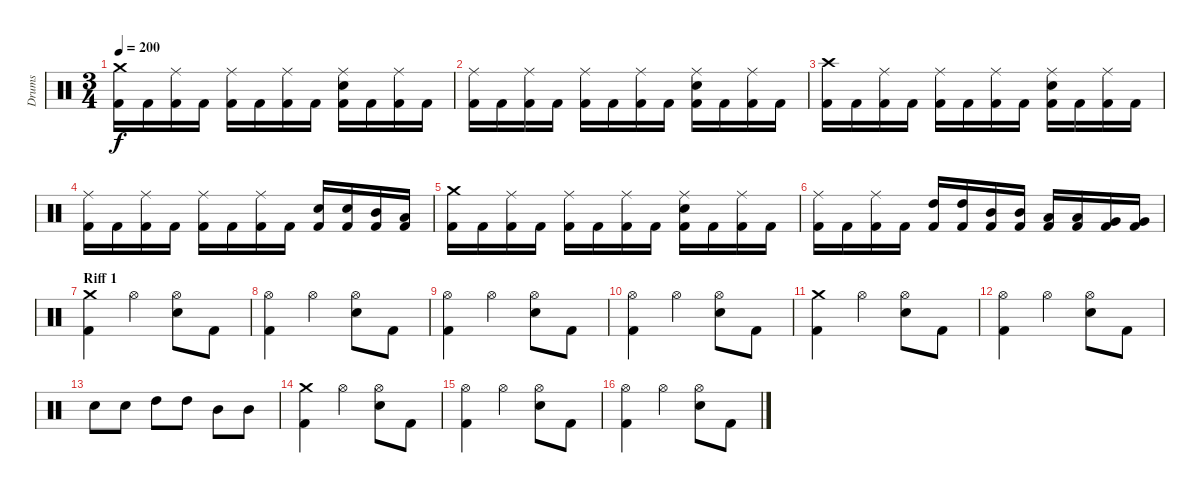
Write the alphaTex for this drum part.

\track ("Drums" "Drums") {instrument percussion}
\staff {score}
\articulation defaults
\ts (3 4)
\tempo 200
\clef neutral
\ks c
("Crash medium (hit)" "Kick (hit) 2").16{dy f} "Kick (hit) 2".16 ("Ride (middle)" "Kick (hit) 2").16 "Kick (hit) 2".16 ("Ride (middle)" "Kick (hit) 2").16 "Kick (hit) 2".16 ("Ride (middle)" "Kick (hit) 2").16 "Kick (hit) 2".16 ("Ride (middle)" "Electric Snare (hit)" "Kick (hit) 2").16 "Kick (hit) 2".16 ("Ride (middle)" "Kick (hit) 2").16 "Kick (hit) 2".16 |
("Ride (middle)" "Kick (hit) 2").16 "Kick (hit) 2".16 ("Ride (middle)" "Kick (hit) 2").16 "Kick (hit) 2".16 ("Ride (middle)" "Kick (hit) 2").16 "Kick (hit) 2".16 ("Ride (middle)" "Kick (hit) 2").16 "Kick (hit) 2".16 ("Ride (middle)" "Electric Snare (hit)" "Kick (hit) 2").16 "Kick (hit) 2".16 ("Ride (middle)" "Kick (hit) 2").16 "Kick (hit) 2".16 |
("Crash high (hit)" "Kick (hit) 2").16 "Kick (hit) 2".16 ("Ride (middle)" "Kick (hit) 2").16 "Kick (hit) 2".16 ("Ride (middle)" "Kick (hit) 2").16 "Kick (hit) 2".16 ("Ride (middle)" "Kick (hit) 2").16 "Kick (hit) 2".16 ("Ride (middle)" "Electric Snare (hit)" "Kick (hit) 2").16 "Kick (hit) 2".16 ("Ride (middle)" "Kick (hit) 2").16 "Kick (hit) 2".16 |
("Ride (middle)" "Kick (hit) 2").16 "Kick (hit) 2".16 ("Ride (middle)" "Kick (hit) 2").16 "Kick (hit) 2".16 ("Ride (middle)" "Kick (hit) 2").16 "Kick (hit) 2".16 ("Ride (middle)" "Kick (hit) 2").16 "Kick (hit) 2".16 ("Electric Snare (hit)" "Kick (hit) 2").16 ("Electric Snare (hit)" "Kick (hit) 2").16 ("Mid Tom (hit)" "Kick (hit) 2").16 ("Low Tom (hit)" "Kick (hit) 2").16 |
("Crash medium (hit)" "Kick (hit) 2").16 "Kick (hit) 2".16 ("Ride (middle)" "Kick (hit) 2").16 "Kick (hit) 2".16 ("Ride (middle)" "Kick (hit) 2").16 "Kick (hit) 2".16 ("Ride (middle)" "Kick (hit) 2").16 "Kick (hit) 2".16 ("Ride (middle)" "Electric Snare (hit)" "Kick (hit) 2").16 "Kick (hit) 2".16 ("Ride (middle)" "Kick (hit) 2").16 "Kick (hit) 2".16 |
("Ride (middle)" "Kick (hit) 2").16 "Kick (hit) 2".16 ("Ride (middle)" "Kick (hit) 2").16 "Kick (hit) 2".16 ("High Tom (hit)" "Kick (hit) 2").16 ("High Tom (hit)" "Kick (hit) 2").16 ("Mid Tom (hit)" "Kick (hit) 2").16 ("Mid Tom (hit)" "Kick (hit) 2").16 ("Low Tom (hit)" "Kick (hit) 2").16 ("Low Tom (hit)" "Kick (hit) 2").16 ("Very Low Tom (hit)" "Kick (hit) 2").16 ("Very Low Tom (hit)" "Kick (hit) 2").16 |
\section ("" "Riff 1")
("Crash medium (hit)" "Kick (hit) 2").4 "Hi-Hat (open)".4 ("Hi-Hat (open)" "Electric Snare (hit)").8 "Kick (hit) 2".8 |
("Hi-Hat (open)" "Kick (hit) 2").4 "Hi-Hat (open)".4 ("Hi-Hat (open)" "Electric Snare (hit)").8 "Kick (hit) 2".8 |
("Hi-Hat (open)" "Kick (hit) 2").4 "Hi-Hat (open)".4 ("Hi-Hat (open)" "Electric Snare (hit)").8 "Kick (hit) 2".8 |
("Hi-Hat (open)" "Kick (hit) 2").4 "Hi-Hat (open)".4 ("Hi-Hat (open)" "Electric Snare (hit)").8 "Kick (hit) 2".8 |
("Crash medium (hit)" "Kick (hit) 2").4 "Hi-Hat (open)".4 ("Hi-Hat (open)" "Electric Snare (hit)").8 "Kick (hit) 2".8 |
("Hi-Hat (open)" "Kick (hit) 2").4 "Hi-Hat (open)".4 ("Hi-Hat (open)" "Electric Snare (hit)").8 "Kick (hit) 2".8 |
"Electric Snare (hit)".8 "Electric Snare (hit)".8 "High Tom (hit)".8 "High Tom (hit)".8 "Mid Tom (hit)".8 "Mid Tom (hit)".8 |
("Crash medium (hit)" "Kick (hit) 2").4 "Hi-Hat (open)".4 ("Hi-Hat (open)" "Electric Snare (hit)").8 "Kick (hit) 2".8 |
("Hi-Hat (open)" "Kick (hit) 2").4 "Hi-Hat (open)".4 ("Hi-Hat (open)" "Electric Snare (hit)").8 "Kick (hit) 2".8 |
("Hi-Hat (open)" "Kick (hit) 2").4 "Hi-Hat (open)".4 ("Hi-Hat (open)" "Electric Snare (hit)").8 "Kick (hit) 2".8
